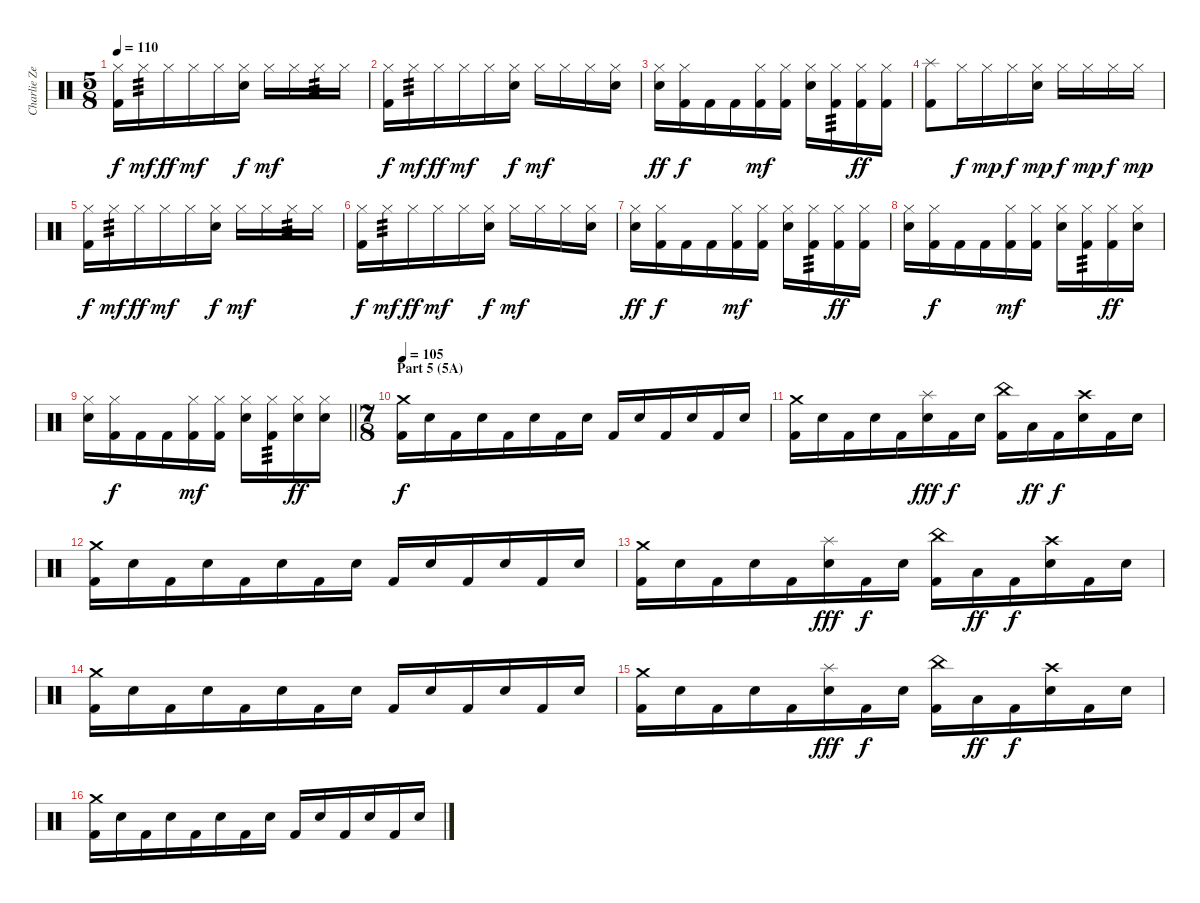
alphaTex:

\track ("Charlie Zeleny - Drums" "Charlie Ze") {instrument percussion}
\staff {score}
\articulation defaults
\ts (5 8)
\tempo 110
\clef neutral
\ks c
("Hi-Hat (closed)" "Kick (hit) 2").16{dy f} "Hi-Hat (closed)".16{tp 3 dy mf} "Hi-Hat (closed)".16{dy ff} "Hi-Hat (closed)".16{dy mf} "Hi-Hat (closed)".16 ("Hi-Hat (closed)" "Electric Snare (hit)").16{dy f} "Hi-Hat (closed)".16{dy mf} "Hi-Hat (closed)".16 "Hi-Hat (closed)".16{tp 3} "Hi-Hat (closed)".16 |
("Hi-Hat (closed)" "Kick (hit) 2").16{dy f} "Hi-Hat (closed)".16{tp 3 dy mf} "Hi-Hat (closed)".16{dy ff} "Hi-Hat (closed)".16{dy mf} "Hi-Hat (closed)".16 ("Hi-Hat (closed)" "Electric Snare (hit)").16{dy f} "Hi-Hat (closed)".16{dy mf} "Hi-Hat (closed)".16 "Hi-Hat (closed)".16 ("Hi-Hat (closed)" "Electric Snare (hit)").16 |
("Hi-Hat (closed)" "Electric Snare (hit)").16{dy ff} ("Hi-Hat (closed)" "Kick (hit) 2").16{dy f} "Kick (hit) 2".16 "Kick (hit) 2".16 ("Hi-Hat (closed)" "Kick (hit) 2").16{dy mf} ("Hi-Hat (closed)" "Kick (hit) 2").16 ("Hi-Hat (closed)" "Electric Snare (hit)").16 ("Hi-Hat (closed)" "Kick (hit) 2").16{tp 3} ("Hi-Hat (closed)" "Kick (hit) 2").16{dy ff} ("Hi-Hat (closed)" "Kick (hit) 2").16 |
("Splash (hit)" "Kick (hit) 2").8 "Hi-Hat (closed)".16{dy f} "Hi-Hat (closed)".16{dy mp} "Hi-Hat (closed)".16{dy f} ("Hi-Hat (closed)" "Electric Snare (hit)").16{dy mp} "Hi-Hat (closed)".16{dy f} "Hi-Hat (closed)".16{dy mp} "Hi-Hat (closed)".16{dy f} "Hi-Hat (closed)".16{dy mp} |
("Hi-Hat (closed)" "Kick (hit) 2").16{dy f} "Hi-Hat (closed)".16{tp 3 dy mf} "Hi-Hat (closed)".16{dy ff} "Hi-Hat (closed)".16{dy mf} "Hi-Hat (closed)".16 ("Hi-Hat (closed)" "Electric Snare (hit)").16{dy f} "Hi-Hat (closed)".16{dy mf} "Hi-Hat (closed)".16 "Hi-Hat (closed)".16{tp 3} "Hi-Hat (closed)".16 |
("Hi-Hat (closed)" "Kick (hit) 2").16{dy f} "Hi-Hat (closed)".16{tp 3 dy mf} "Hi-Hat (closed)".16{dy ff} "Hi-Hat (closed)".16{dy mf} "Hi-Hat (closed)".16 ("Hi-Hat (closed)" "Electric Snare (hit)").16{dy f} "Hi-Hat (closed)".16{dy mf} "Hi-Hat (closed)".16 "Hi-Hat (closed)".16 ("Hi-Hat (closed)" "Electric Snare (hit)").16 |
("Hi-Hat (closed)" "Electric Snare (hit)").16{dy ff} ("Hi-Hat (closed)" "Kick (hit) 2").16{dy f} "Kick (hit) 2".16 "Kick (hit) 2".16 ("Hi-Hat (closed)" "Kick (hit) 2").16{dy mf} ("Hi-Hat (closed)" "Kick (hit) 2").16 ("Hi-Hat (closed)" "Electric Snare (hit)").16 ("Hi-Hat (closed)" "Kick (hit) 2").16{tp 3} ("Hi-Hat (closed)" "Kick (hit) 2").16{dy ff} ("Hi-Hat (closed)" "Kick (hit) 2").16 |
("Hi-Hat (closed)" "Electric Snare (hit)").16 ("Hi-Hat (closed)" "Kick (hit) 2").16{dy f} "Kick (hit) 2".16 "Kick (hit) 2".16 ("Hi-Hat (closed)" "Kick (hit) 2").16{dy mf} ("Hi-Hat (closed)" "Kick (hit) 2").16 ("Hi-Hat (closed)" "Electric Snare (hit)").16 ("Hi-Hat (closed)" "Kick (hit) 2").16{tp 3} ("Hi-Hat (closed)" "Kick (hit) 2").16{dy ff} ("Hi-Hat (closed)" "Electric Snare (hit)").16 |
\barLineRight lightlight
("Hi-Hat (closed)" "Electric Snare (hit)").16 ("Hi-Hat (closed)" "Kick (hit) 2").16{dy f} "Kick (hit) 2".16 "Kick (hit) 2".16 ("Hi-Hat (closed)" "Kick (hit) 2").16{dy mf} ("Hi-Hat (closed)" "Kick (hit) 2").16 ("Hi-Hat (closed)" "Electric Snare (hit)").16 ("Hi-Hat (closed)" "Kick (hit) 2").16{tp 3} ("Hi-Hat (closed)" "Electric Snare (hit)").16{dy ff} ("Hi-Hat (closed)" "Electric Snare (hit)").16 |
\ts (7 8)
\section ("" "Part 5 (5A)")
\tempo 105
("Crash medium (hit)" "Kick (hit) 2").16{dy f} "Electric Snare (hit)".16 "Kick (hit) 2".16 "Electric Snare (hit)".16 "Kick (hit) 2".16 "Electric Snare (hit)".16 "Kick (hit) 2".16 "Electric Snare (hit)".16 "Kick (hit) 2".16 "Electric Snare (hit)".16 "Kick (hit) 2".16 "Electric Snare (hit)".16 "Kick (hit) 2".16 "Electric Snare (hit)".16 |
("Crash medium (hit)" "Kick (hit) 2").16 "Electric Snare (hit)".16 "Kick (hit) 2".16 "Electric Snare (hit)".16 "Kick (hit) 2".16 ("Splash (hit)" "Electric Snare (hit)").16{dy fff} "Kick (hit) 2".16{dy f} "Electric Snare (hit)".16 ("China (hit)" "Kick (hit) 2").16 "Low Floor Tom (hit)".16{dy ff} "Kick (hit) 2".16{dy f} ("Crash high (hit)" "Electric Snare (hit)").16 "Kick (hit) 2".16 "Electric Snare (hit)".16 |
("Crash medium (hit)" "Kick (hit) 2").16 "Electric Snare (hit)".16 "Kick (hit) 2".16 "Electric Snare (hit)".16 "Kick (hit) 2".16 "Electric Snare (hit)".16 "Kick (hit) 2".16 "Electric Snare (hit)".16 "Kick (hit) 2".16 "Electric Snare (hit)".16 "Kick (hit) 2".16 "Electric Snare (hit)".16 "Kick (hit) 2".16 "Electric Snare (hit)".16 |
("Crash medium (hit)" "Kick (hit) 2").16 "Electric Snare (hit)".16 "Kick (hit) 2".16 "Electric Snare (hit)".16 "Kick (hit) 2".16 ("Splash (hit)" "Electric Snare (hit)").16{dy fff} "Kick (hit) 2".16{dy f} "Electric Snare (hit)".16 ("China (hit)" "Kick (hit) 2").16 "Low Floor Tom (hit)".16{dy ff} "Kick (hit) 2".16{dy f} ("Crash high (hit)" "Electric Snare (hit)").16 "Kick (hit) 2".16 "Electric Snare (hit)".16 |
("Crash medium (hit)" "Kick (hit) 2").16 "Electric Snare (hit)".16 "Kick (hit) 2".16 "Electric Snare (hit)".16 "Kick (hit) 2".16 "Electric Snare (hit)".16 "Kick (hit) 2".16 "Electric Snare (hit)".16 "Kick (hit) 2".16 "Electric Snare (hit)".16 "Kick (hit) 2".16 "Electric Snare (hit)".16 "Kick (hit) 2".16 "Electric Snare (hit)".16 |
("Crash medium (hit)" "Kick (hit) 2").16 "Electric Snare (hit)".16 "Kick (hit) 2".16 "Electric Snare (hit)".16 "Kick (hit) 2".16 ("Splash (hit)" "Electric Snare (hit)").16{dy fff} "Kick (hit) 2".16{dy f} "Electric Snare (hit)".16 ("China (hit)" "Kick (hit) 2").16 "Low Floor Tom (hit)".16{dy ff} "Kick (hit) 2".16{dy f} ("Crash high (hit)" "Electric Snare (hit)").16 "Kick (hit) 2".16 "Electric Snare (hit)".16 |
("Crash medium (hit)" "Kick (hit) 2").16 "Electric Snare (hit)".16 "Kick (hit) 2".16 "Electric Snare (hit)".16 "Kick (hit) 2".16 "Electric Snare (hit)".16 "Kick (hit) 2".16 "Electric Snare (hit)".16 "Kick (hit) 2".16 "Electric Snare (hit)".16 "Kick (hit) 2".16 "Electric Snare (hit)".16 "Kick (hit) 2".16 "Electric Snare (hit)".16
